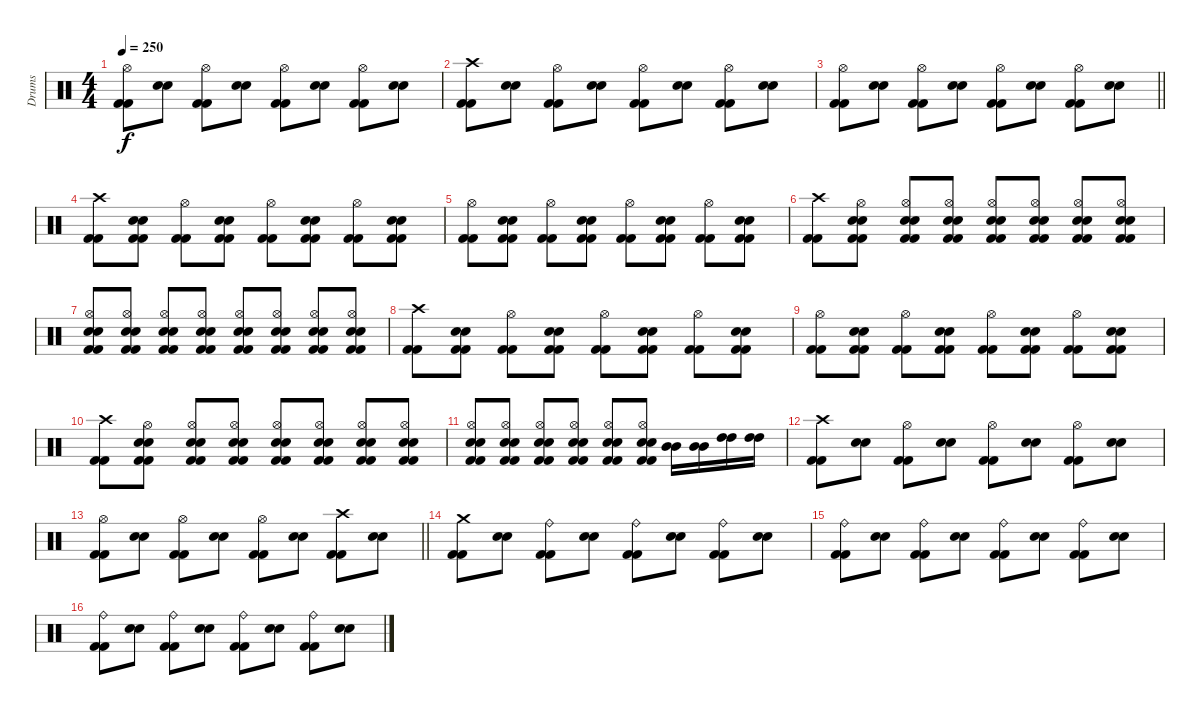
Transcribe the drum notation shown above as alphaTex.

\track ("Drums" "Drums") {instrument percussion}
\staff {score}
\articulation defaults
\ts (4 4)
\tempo 250
\clef neutral
\ks c
("Kick (hit) 2" "Kick (hit) 2" "Hi-Hat (open)").8{dy f} ("Electric Snare (hit)" "Electric Snare (hit)").8 ("Kick (hit) 2" "Kick (hit) 2" "Hi-Hat (open)").8 ("Electric Snare (hit)" "Electric Snare (hit)").8 ("Kick (hit) 2" "Kick (hit) 2" "Hi-Hat (open)").8 ("Electric Snare (hit)" "Electric Snare (hit)").8 ("Kick (hit) 2" "Kick (hit) 2" "Hi-Hat (open)").8 ("Electric Snare (hit)" "Electric Snare (hit)").8 |
("Kick (hit) 2" "Kick (hit) 2" "Crash high (hit)").8 ("Electric Snare (hit)" "Electric Snare (hit)").8 ("Kick (hit) 2" "Kick (hit) 2" "Hi-Hat (open)").8 ("Electric Snare (hit)" "Electric Snare (hit)").8 ("Kick (hit) 2" "Kick (hit) 2" "Hi-Hat (open)").8 ("Electric Snare (hit)" "Electric Snare (hit)").8 ("Kick (hit) 2" "Kick (hit) 2" "Hi-Hat (open)").8 ("Electric Snare (hit)" "Electric Snare (hit)").8 |
\barLineRight lightlight
("Kick (hit) 2" "Kick (hit) 2" "Hi-Hat (open)").8 ("Electric Snare (hit)" "Electric Snare (hit)").8 ("Kick (hit) 2" "Kick (hit) 2" "Hi-Hat (open)").8 ("Electric Snare (hit)" "Electric Snare (hit)").8 ("Kick (hit) 2" "Kick (hit) 2" "Hi-Hat (open)").8 ("Electric Snare (hit)" "Electric Snare (hit)").8 ("Kick (hit) 2" "Kick (hit) 2" "Hi-Hat (open)").8 ("Electric Snare (hit)" "Electric Snare (hit)").8 |
("Kick (hit) 2" "Kick (hit) 2" "Crash high (hit)").8 ("Kick (hit) 2" "Kick (hit) 2" "Electric Snare (hit)" "Electric Snare (hit)").8 ("Kick (hit) 2" "Kick (hit) 2" "Hi-Hat (open)").8 ("Kick (hit) 2" "Kick (hit) 2" "Electric Snare (hit)" "Electric Snare (hit)").8 ("Kick (hit) 2" "Kick (hit) 2" "Hi-Hat (open)").8 ("Kick (hit) 2" "Kick (hit) 2" "Electric Snare (hit)" "Electric Snare (hit)").8 ("Kick (hit) 2" "Kick (hit) 2" "Hi-Hat (open)").8 ("Kick (hit) 2" "Kick (hit) 2" "Electric Snare (hit)" "Electric Snare (hit)").8 |
("Kick (hit) 2" "Kick (hit) 2" "Hi-Hat (open)").8 ("Kick (hit) 2" "Kick (hit) 2" "Electric Snare (hit)" "Electric Snare (hit)").8 ("Kick (hit) 2" "Kick (hit) 2" "Hi-Hat (open)").8 ("Kick (hit) 2" "Kick (hit) 2" "Electric Snare (hit)" "Electric Snare (hit)").8 ("Kick (hit) 2" "Kick (hit) 2" "Hi-Hat (open)").8 ("Kick (hit) 2" "Kick (hit) 2" "Electric Snare (hit)" "Electric Snare (hit)").8 ("Kick (hit) 2" "Kick (hit) 2" "Hi-Hat (open)").8 ("Kick (hit) 2" "Kick (hit) 2" "Electric Snare (hit)" "Electric Snare (hit)").8 |
("Kick (hit) 2" "Kick (hit) 2" "Crash high (hit)").8 ("Kick (hit) 2" "Kick (hit) 2" "Electric Snare (hit)" "Electric Snare (hit)" "Hi-Hat (open)").8 ("Kick (hit) 2" "Kick (hit) 2" "Electric Snare (hit)" "Electric Snare (hit)" "Hi-Hat (open)").8 ("Kick (hit) 2" "Kick (hit) 2" "Electric Snare (hit)" "Electric Snare (hit)" "Hi-Hat (open)").8 ("Kick (hit) 2" "Kick (hit) 2" "Electric Snare (hit)" "Electric Snare (hit)" "Hi-Hat (open)").8 ("Kick (hit) 2" "Kick (hit) 2" "Electric Snare (hit)" "Electric Snare (hit)" "Hi-Hat (open)").8 ("Kick (hit) 2" "Kick (hit) 2" "Electric Snare (hit)" "Electric Snare (hit)" "Hi-Hat (open)").8 ("Kick (hit) 2" "Kick (hit) 2" "Electric Snare (hit)" "Electric Snare (hit)" "Hi-Hat (open)").8 |
("Kick (hit) 2" "Kick (hit) 2" "Electric Snare (hit)" "Electric Snare (hit)" "Hi-Hat (open)").8 ("Kick (hit) 2" "Kick (hit) 2" "Electric Snare (hit)" "Electric Snare (hit)" "Hi-Hat (open)").8 ("Kick (hit) 2" "Kick (hit) 2" "Electric Snare (hit)" "Electric Snare (hit)" "Hi-Hat (open)").8 ("Kick (hit) 2" "Kick (hit) 2" "Electric Snare (hit)" "Electric Snare (hit)" "Hi-Hat (open)").8 ("Kick (hit) 2" "Kick (hit) 2" "Electric Snare (hit)" "Electric Snare (hit)" "Hi-Hat (open)").8 ("Kick (hit) 2" "Kick (hit) 2" "Electric Snare (hit)" "Electric Snare (hit)" "Hi-Hat (open)").8 ("Kick (hit) 2" "Kick (hit) 2" "Electric Snare (hit)" "Electric Snare (hit)" "Hi-Hat (open)").8 ("Kick (hit) 2" "Kick (hit) 2" "Electric Snare (hit)" "Electric Snare (hit)" "Hi-Hat (open)").8 |
("Kick (hit) 2" "Kick (hit) 2" "Crash high (hit)").8 ("Kick (hit) 2" "Kick (hit) 2" "Electric Snare (hit)" "Electric Snare (hit)").8 ("Kick (hit) 2" "Kick (hit) 2" "Hi-Hat (open)").8 ("Kick (hit) 2" "Kick (hit) 2" "Electric Snare (hit)" "Electric Snare (hit)").8 ("Kick (hit) 2" "Kick (hit) 2" "Hi-Hat (open)").8 ("Kick (hit) 2" "Kick (hit) 2" "Electric Snare (hit)" "Electric Snare (hit)").8 ("Kick (hit) 2" "Kick (hit) 2" "Hi-Hat (open)").8 ("Kick (hit) 2" "Kick (hit) 2" "Electric Snare (hit)" "Electric Snare (hit)").8 |
("Kick (hit) 2" "Kick (hit) 2" "Hi-Hat (open)").8 ("Kick (hit) 2" "Kick (hit) 2" "Electric Snare (hit)" "Electric Snare (hit)").8 ("Kick (hit) 2" "Kick (hit) 2" "Hi-Hat (open)").8 ("Kick (hit) 2" "Kick (hit) 2" "Electric Snare (hit)" "Electric Snare (hit)").8 ("Kick (hit) 2" "Kick (hit) 2" "Hi-Hat (open)").8 ("Kick (hit) 2" "Kick (hit) 2" "Electric Snare (hit)" "Electric Snare (hit)").8 ("Kick (hit) 2" "Kick (hit) 2" "Hi-Hat (open)").8 ("Kick (hit) 2" "Kick (hit) 2" "Electric Snare (hit)" "Electric Snare (hit)").8 |
("Kick (hit) 2" "Kick (hit) 2" "Crash high (hit)").8 ("Kick (hit) 2" "Kick (hit) 2" "Electric Snare (hit)" "Electric Snare (hit)" "Hi-Hat (open)").8 ("Kick (hit) 2" "Kick (hit) 2" "Electric Snare (hit)" "Electric Snare (hit)" "Hi-Hat (open)").8 ("Kick (hit) 2" "Kick (hit) 2" "Electric Snare (hit)" "Electric Snare (hit)" "Hi-Hat (open)").8 ("Kick (hit) 2" "Kick (hit) 2" "Electric Snare (hit)" "Electric Snare (hit)" "Hi-Hat (open)").8 ("Kick (hit) 2" "Kick (hit) 2" "Electric Snare (hit)" "Electric Snare (hit)" "Hi-Hat (open)").8 ("Kick (hit) 2" "Kick (hit) 2" "Electric Snare (hit)" "Electric Snare (hit)" "Hi-Hat (open)").8 ("Kick (hit) 2" "Kick (hit) 2" "Electric Snare (hit)" "Electric Snare (hit)" "Hi-Hat (open)").8 |
("Kick (hit) 2" "Kick (hit) 2" "Electric Snare (hit)" "Electric Snare (hit)" "Hi-Hat (open)").8 ("Kick (hit) 2" "Kick (hit) 2" "Electric Snare (hit)" "Electric Snare (hit)" "Hi-Hat (open)").8 ("Kick (hit) 2" "Kick (hit) 2" "Electric Snare (hit)" "Electric Snare (hit)" "Hi-Hat (open)").8 ("Kick (hit) 2" "Kick (hit) 2" "Electric Snare (hit)" "Electric Snare (hit)" "Hi-Hat (open)").8 ("Kick (hit) 2" "Kick (hit) 2" "Electric Snare (hit)" "Electric Snare (hit)" "Hi-Hat (open)").8 ("Kick (hit) 2" "Kick (hit) 2" "Electric Snare (hit)" "Electric Snare (hit)" "Hi-Hat (open)").8 ("Mid Tom (hit)" "Mid Tom (hit)").16 ("Mid Tom (hit)" "Mid Tom (hit)").16 ("High Tom (hit)" "High Tom (hit)").16 ("High Tom (hit)" "High Tom (hit)").16 |
("Kick (hit) 2" "Kick (hit) 2" "Crash high (hit)").8 ("Electric Snare (hit)" "Electric Snare (hit)").8 ("Kick (hit) 2" "Kick (hit) 2" "Hi-Hat (open)").8 ("Electric Snare (hit)" "Electric Snare (hit)").8 ("Kick (hit) 2" "Kick (hit) 2" "Hi-Hat (open)").8 ("Electric Snare (hit)" "Electric Snare (hit)").8 ("Kick (hit) 2" "Kick (hit) 2" "Hi-Hat (open)").8 ("Electric Snare (hit)" "Electric Snare (hit)").8 |
\barLineRight lightlight
("Kick (hit) 2" "Kick (hit) 2" "Hi-Hat (open)").8 ("Electric Snare (hit)" "Electric Snare (hit)").8 ("Kick (hit) 2" "Kick (hit) 2" "Hi-Hat (open)").8 ("Electric Snare (hit)" "Electric Snare (hit)").8 ("Kick (hit) 2" "Kick (hit) 2" "Hi-Hat (open)").8 ("Electric Snare (hit)" "Electric Snare (hit)").8 ("Kick (hit) 2" "Kick (hit) 2" "Crash high (hit)").8 ("Electric Snare (hit)" "Electric Snare (hit)").8 |
("Kick (hit) 2" "Kick (hit) 2" "Crash medium (hit)").8 ("Electric Snare (hit)" "Electric Snare (hit)").8 ("Kick (hit) 2" "Kick (hit) 2" "Ride (bell)").8 ("Electric Snare (hit)" "Electric Snare (hit)").8 ("Kick (hit) 2" "Kick (hit) 2" "Ride (bell)").8 ("Electric Snare (hit)" "Electric Snare (hit)").8 ("Kick (hit) 2" "Kick (hit) 2" "Ride (bell)").8 ("Electric Snare (hit)" "Electric Snare (hit)").8 |
("Kick (hit) 2" "Kick (hit) 2" "Ride (bell)").8 ("Electric Snare (hit)" "Electric Snare (hit)").8 ("Kick (hit) 2" "Kick (hit) 2" "Ride (bell)").8 ("Electric Snare (hit)" "Electric Snare (hit)").8 ("Kick (hit) 2" "Kick (hit) 2" "Ride (bell)").8 ("Electric Snare (hit)" "Electric Snare (hit)").8 ("Kick (hit) 2" "Kick (hit) 2" "Ride (bell)").8 ("Electric Snare (hit)" "Electric Snare (hit)").8 |
("Kick (hit) 2" "Kick (hit) 2" "Ride (bell)").8 ("Electric Snare (hit)" "Electric Snare (hit)").8 ("Kick (hit) 2" "Kick (hit) 2" "Ride (bell)").8 ("Electric Snare (hit)" "Electric Snare (hit)").8 ("Kick (hit) 2" "Kick (hit) 2" "Ride (bell)").8 ("Electric Snare (hit)" "Electric Snare (hit)").8 ("Kick (hit) 2" "Kick (hit) 2" "Ride (bell)").8 ("Electric Snare (hit)" "Electric Snare (hit)").8
